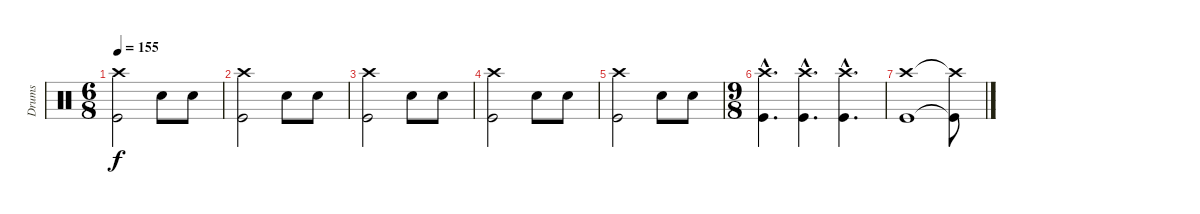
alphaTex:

\track ("Drums" "Drums") {instrument percussion}
\staff {score}
\articulation defaults
\ts (6 8)
\tempo 155
\clef neutral
\ks c
("Kick (hit)" "Crash high (hit)").2{dy f} "Snare (hit) 2".8 "Snare (hit) 2".8 |
("Kick (hit)" "Crash high (hit)").2 "Snare (hit) 2".8 "Snare (hit) 2".8 |
("Kick (hit)" "Crash high (hit)").2 "Snare (hit) 2".8 "Snare (hit) 2".8 |
("Kick (hit)" "Crash high (hit)").2 "Snare (hit) 2".8 "Snare (hit) 2".8 |
("Kick (hit)" "Crash high (hit)").2 "Snare (hit) 2".8 "Snare (hit) 2".8 |
\ts (9 8)
("Kick (hit)"{hac} "Crash high (hit)"{hac}).4{d} ("Kick (hit)"{hac} "Crash high (hit)"{hac}).4{d} ("Kick (hit)"{hac} "Crash high (hit)"{hac}).4{d} |
("Kick (hit)" "Crash high (hit)").1 ("Kick (hit)"{t} "Crash high (hit)"{t}).8
